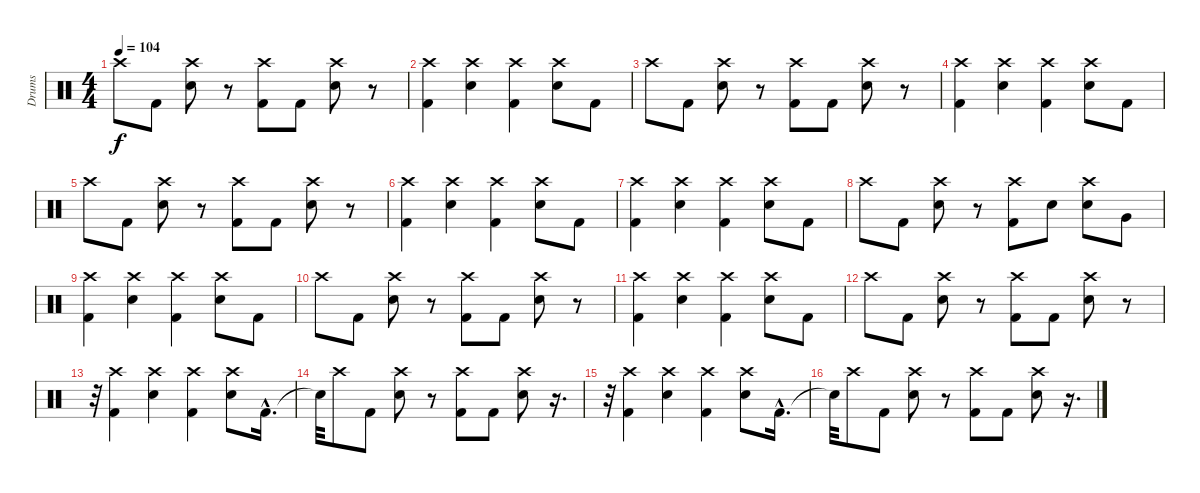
\track ("Drums" "Drums") {instrument percussion}
\staff {score}
\articulation defaults
\ts (4 4)
\tempo 104
\clef neutral
\ks c "Crash high (hit)".8{dy f} "Kick (hit) 2".8
("Crash high (hit)" "Electric Snare (hit)").8 r.8 ("Crash high (hit)" "Kick (hit) 2").8 "Kick (hit) 2".8 ("Crash high (hit)" "Electric Snare (hit)").8 r.8 |
("Crash high (hit)" "Kick (hit) 2").4 ("Crash high (hit)" "Electric Snare (hit)").4 ("Crash high (hit)" "Kick (hit) 2").4 ("Crash high (hit)" "Electric Snare (hit)").8 "Kick (hit) 2".8 |
"Crash high (hit)".8 "Kick (hit) 2".8 ("Crash high (hit)" "Electric Snare (hit)").8 r.8 ("Crash high (hit)" "Kick (hit) 2").8 "Kick (hit) 2".8 ("Crash high (hit)" "Electric Snare (hit)").8 r.8 |
("Crash high (hit)" "Kick (hit) 2").4 ("Crash high (hit)" "Electric Snare (hit)").4 ("Crash high (hit)" "Kick (hit) 2").4 ("Crash high (hit)" "Electric Snare (hit)").8 "Kick (hit) 2".8 |
"Crash high (hit)".8 "Kick (hit) 2".8 ("Crash high (hit)" "Electric Snare (hit)").8 r.8 ("Crash high (hit)" "Kick (hit) 2").8 "Kick (hit) 2".8 ("Crash high (hit)" "Electric Snare (hit)").8 r.8 |
("Crash high (hit)" "Kick (hit) 2").4 ("Crash high (hit)" "Electric Snare (hit)").4 ("Crash high (hit)" "Kick (hit) 2").4 ("Crash high (hit)" "Electric Snare (hit)").8 "Kick (hit) 2".8 |
("Crash high (hit)" "Kick (hit) 2").4 ("Crash high (hit)" "Electric Snare (hit)").4 ("Crash high (hit)" "Kick (hit) 2").4 ("Crash high (hit)" "Electric Snare (hit)").8 "Kick (hit) 2".8 |
"Crash high (hit)".8 "Kick (hit) 2".8 ("Crash high (hit)" "Electric Snare (hit)").8 r.8 ("Crash high (hit)" "Kick (hit) 2").8 "Electric Snare (hit)".8 ("Crash high (hit)" "Electric Snare (hit)").8 "Very Low Tom (hit)".8 |
("Crash high (hit)" "Kick (hit) 2").4 ("Crash high (hit)" "Electric Snare (hit)").4 ("Crash high (hit)" "Kick (hit) 2").4 ("Crash high (hit)" "Electric Snare (hit)").8 "Kick (hit) 2".8 |
"Crash high (hit)".8 "Kick (hit) 2".8 ("Crash high (hit)" "Electric Snare (hit)").8 r.8 ("Crash high (hit)" "Kick (hit) 2").8 "Kick (hit) 2".8 ("Crash high (hit)" "Electric Snare (hit)").8 r.8 |
("Crash high (hit)" "Kick (hit) 2").4 ("Crash high (hit)" "Electric Snare (hit)").4 ("Crash high (hit)" "Kick (hit) 2").4 ("Crash high (hit)" "Electric Snare (hit)").8 "Kick (hit) 2".8 |
"Crash high (hit)".8 "Kick (hit) 2".8 ("Crash high (hit)" "Electric Snare (hit)").8 r.8 ("Crash high (hit)" "Kick (hit) 2").8 "Kick (hit) 2".8 ("Crash high (hit)" "Electric Snare (hit)").8 r.8 |
r.32 ("Crash high (hit)" "Kick (hit) 2").4 ("Crash high (hit)" "Electric Snare (hit)").4 ("Crash high (hit)" "Kick (hit) 2").4 ("Crash high (hit)" "Electric Snare (hit)").8 "Kick (hit) 2"{hac}.16{d} |
"Snare (hit)"{t}.32 "Crash high (hit)".8 "Kick (hit) 2".8 ("Crash high (hit)" "Electric Snare (hit)").8 r.8 ("Crash high (hit)" "Kick (hit) 2").8 "Kick (hit) 2".8 ("Crash high (hit)" "Electric Snare (hit)").8 r.16{d} |
r.32 ("Crash high (hit)" "Kick (hit) 2").4 ("Crash high (hit)" "Electric Snare (hit)").4 ("Crash high (hit)" "Kick (hit) 2").4 ("Crash high (hit)" "Electric Snare (hit)").8 "Kick (hit) 2"{hac}.16{d} |
"Snare (hit)"{t}.32 "Crash high (hit)".8 "Kick (hit) 2".8 ("Crash high (hit)" "Electric Snare (hit)").8 r.8 ("Crash high (hit)" "Kick (hit) 2").8 "Kick (hit) 2".8 ("Crash high (hit)" "Electric Snare (hit)").8 r.16{d}
